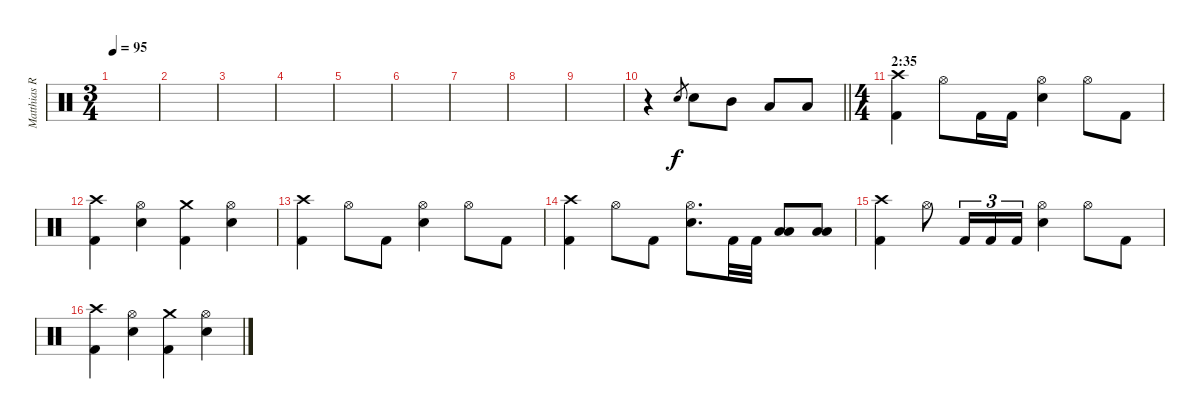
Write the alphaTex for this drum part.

\track ("Matthias R." "Matthias R") {instrument percussion}
\staff {score}
\articulation defaults
\ts (3 4)
\tempo 95
\clef neutral
\ks c
|
|
|
|
|
|
|
|
|
\barLineRight lightlight
r.4 "Snare (hit) 2".8{gr} "Snare (hit) 2".8 "Mid Tom (hit)".8 "Low Tom (hit)".8 "Low Tom (hit)".8 |
\ts (4 4)
\section ("" "2:35")
("Kick (hit) 2" "Crash high (hit)").4 "Hi-Hat (open)".8 "Kick (hit) 2".16 "Kick (hit) 2".16 ("Snare (hit) 2" "Hi-Hat (open)").4 "Hi-Hat (open)".8 "Kick (hit) 2".8 |
("Kick (hit) 2" "Crash high (hit)").4 ("Snare (hit) 2" "Hi-Hat (open)").4 ("Kick (hit) 2" "Crash medium (hit)").4 ("Snare (hit) 2" "Hi-Hat (open)").4 |
("Kick (hit) 2" "Crash high (hit)").4 "Hi-Hat (open)".8 "Kick (hit) 2".8 ("Snare (hit) 2" "Hi-Hat (open)").4 "Hi-Hat (open)".8 "Kick (hit) 2".8 |
("Kick (hit) 2" "Crash high (hit)").4 "Hi-Hat (open)".8 "Kick (hit) 2".8 ("Snare (hit) 2" "Hi-Hat (open)").8{d} "Kick (hit) 2".32 "Kick (hit) 2".32 ("Low Tom (hit)" "Low Tom (hit)").8 ("Low Tom (hit)" "Low Tom (hit)").8 |
("Kick (hit) 2" "Crash high (hit)").4 "Hi-Hat (open)".8 "Kick (hit) 2".16{tu (3 2)} "Kick (hit) 2".16{tu (3 2)} "Kick (hit) 2".16{tu (3 2)} ("Snare (hit) 2" "Hi-Hat (open)").4 "Hi-Hat (open)".8 "Kick (hit) 2".8 |
("Kick (hit) 2" "Crash high (hit)").4 ("Snare (hit) 2" "Hi-Hat (open)").4 ("Kick (hit) 2" "Crash medium (hit)").4 ("Snare (hit) 2" "Hi-Hat (open)").4
